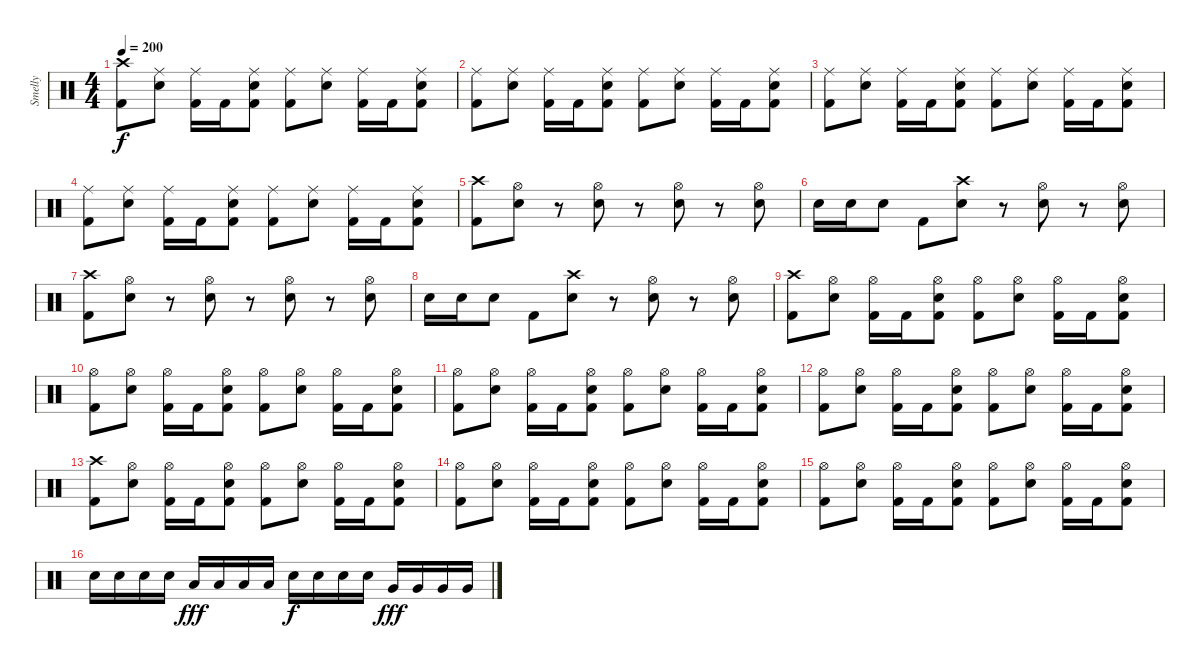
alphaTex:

\track ("Smelly" "Smelly") {instrument percussion}
\staff {score}
\articulation defaults
\ts (4 4)
\tempo 200
\clef neutral
\ks c
("Crash high (hit)" "Kick (hit) 2").8{dy f} ("Ride (middle)" "Electric Snare (hit)").8 ("Ride (middle)" "Kick (hit) 2").16 "Kick (hit) 2".16 ("Ride (middle)" "Electric Snare (hit)" "Kick (hit) 2").8 ("Ride (middle)" "Kick (hit) 2").8 ("Ride (middle)" "Electric Snare (hit)").8 ("Ride (middle)" "Kick (hit) 2").16 "Kick (hit) 2".16 ("Ride (middle)" "Electric Snare (hit)" "Kick (hit) 2").8 |
("Ride (middle)" "Kick (hit) 2").8 ("Ride (middle)" "Electric Snare (hit)").8 ("Ride (middle)" "Kick (hit) 2").16 "Kick (hit) 2".16 ("Ride (middle)" "Electric Snare (hit)" "Kick (hit) 2").8 ("Ride (middle)" "Kick (hit) 2").8 ("Ride (middle)" "Electric Snare (hit)").8 ("Ride (middle)" "Kick (hit) 2").16 "Kick (hit) 2".16 ("Ride (middle)" "Electric Snare (hit)" "Kick (hit) 2").8 |
("Ride (middle)" "Kick (hit) 2").8 ("Ride (middle)" "Electric Snare (hit)").8 ("Ride (middle)" "Kick (hit) 2").16 "Kick (hit) 2".16 ("Ride (middle)" "Electric Snare (hit)" "Kick (hit) 2").8 ("Ride (middle)" "Kick (hit) 2").8 ("Ride (middle)" "Electric Snare (hit)").8 ("Ride (middle)" "Kick (hit) 2").16 "Kick (hit) 2".16 ("Ride (middle)" "Electric Snare (hit)" "Kick (hit) 2").8 |
("Ride (middle)" "Kick (hit) 2").8 ("Ride (middle)" "Electric Snare (hit)").8 ("Ride (middle)" "Kick (hit) 2").16 "Kick (hit) 2".16 ("Ride (middle)" "Electric Snare (hit)" "Kick (hit) 2").8 ("Ride (middle)" "Kick (hit) 2").8 ("Ride (middle)" "Electric Snare (hit)").8 ("Ride (middle)" "Kick (hit) 2").16 "Kick (hit) 2".16 ("Ride (middle)" "Electric Snare (hit)" "Kick (hit) 2").8 |
("Crash high (hit)" "Kick (hit) 2").8 ("Hi-Hat (open)" "Electric Snare (hit)").8 r.8 ("Hi-Hat (open)" "Electric Snare (hit)").8 r.8 ("Hi-Hat (open)" "Electric Snare (hit)").8 r.8 ("Hi-Hat (open)" "Electric Snare (hit)").8 |
"Electric Snare (hit)".16 "Electric Snare (hit)".16 "Electric Snare (hit)".8 "Kick (hit) 2".8 ("Crash high (hit)" "Electric Snare (hit)").8 r.8 ("Hi-Hat (open)" "Electric Snare (hit)").8 r.8 ("Hi-Hat (open)" "Electric Snare (hit)").8 |
("Crash high (hit)" "Kick (hit) 2").8 ("Hi-Hat (open)" "Electric Snare (hit)").8 r.8 ("Hi-Hat (open)" "Electric Snare (hit)").8 r.8 ("Hi-Hat (open)" "Electric Snare (hit)").8 r.8 ("Hi-Hat (open)" "Electric Snare (hit)").8 |
"Electric Snare (hit)".16 "Electric Snare (hit)".16 "Electric Snare (hit)".8 "Kick (hit) 2".8 ("Crash high (hit)" "Electric Snare (hit)").8 r.8 ("Hi-Hat (open)" "Electric Snare (hit)").8 r.8 ("Hi-Hat (open)" "Electric Snare (hit)").8 |
("Crash high (hit)" "Kick (hit) 2").8 ("Hi-Hat (open)" "Electric Snare (hit)").8 ("Hi-Hat (open)" "Kick (hit) 2").16 "Kick (hit) 2".16 ("Hi-Hat (open)" "Electric Snare (hit)" "Kick (hit) 2").8 ("Hi-Hat (open)" "Kick (hit) 2").8 ("Hi-Hat (open)" "Electric Snare (hit)").8 ("Hi-Hat (open)" "Kick (hit) 2").16 "Kick (hit) 2".16 ("Hi-Hat (open)" "Electric Snare (hit)" "Kick (hit) 2").8 |
("Hi-Hat (open)" "Kick (hit) 2").8 ("Hi-Hat (open)" "Electric Snare (hit)").8 ("Hi-Hat (open)" "Kick (hit) 2").16 "Kick (hit) 2".16 ("Hi-Hat (open)" "Electric Snare (hit)" "Kick (hit) 2").8 ("Hi-Hat (open)" "Kick (hit) 2").8 ("Hi-Hat (open)" "Electric Snare (hit)").8 ("Hi-Hat (open)" "Kick (hit) 2").16 "Kick (hit) 2".16 ("Hi-Hat (open)" "Electric Snare (hit)" "Kick (hit) 2").8 |
("Hi-Hat (open)" "Kick (hit) 2").8 ("Hi-Hat (open)" "Electric Snare (hit)").8 ("Hi-Hat (open)" "Kick (hit) 2").16 "Kick (hit) 2".16 ("Hi-Hat (open)" "Electric Snare (hit)" "Kick (hit) 2").8 ("Hi-Hat (open)" "Kick (hit) 2").8 ("Hi-Hat (open)" "Electric Snare (hit)").8 ("Hi-Hat (open)" "Kick (hit) 2").16 "Kick (hit) 2".16 ("Hi-Hat (open)" "Electric Snare (hit)" "Kick (hit) 2").8 |
("Hi-Hat (open)" "Kick (hit) 2").8 ("Hi-Hat (open)" "Electric Snare (hit)").8 ("Hi-Hat (open)" "Kick (hit) 2").16 "Kick (hit) 2".16 ("Hi-Hat (open)" "Electric Snare (hit)" "Kick (hit) 2").8 ("Hi-Hat (open)" "Kick (hit) 2").8 ("Hi-Hat (open)" "Electric Snare (hit)").8 ("Hi-Hat (open)" "Kick (hit) 2").16 "Kick (hit) 2".16 ("Hi-Hat (open)" "Electric Snare (hit)" "Kick (hit) 2").8 |
("Crash high (hit)" "Kick (hit) 2").8 ("Hi-Hat (open)" "Electric Snare (hit)").8 ("Hi-Hat (open)" "Kick (hit) 2").16 "Kick (hit) 2".16 ("Hi-Hat (open)" "Electric Snare (hit)" "Kick (hit) 2").8 ("Hi-Hat (open)" "Kick (hit) 2").8 ("Hi-Hat (open)" "Electric Snare (hit)").8 ("Hi-Hat (open)" "Kick (hit) 2").16 "Kick (hit) 2".16 ("Hi-Hat (open)" "Electric Snare (hit)" "Kick (hit) 2").8 |
("Hi-Hat (open)" "Kick (hit) 2").8 ("Hi-Hat (open)" "Electric Snare (hit)").8 ("Hi-Hat (open)" "Kick (hit) 2").16 "Kick (hit) 2".16 ("Hi-Hat (open)" "Electric Snare (hit)" "Kick (hit) 2").8 ("Hi-Hat (open)" "Kick (hit) 2").8 ("Hi-Hat (open)" "Electric Snare (hit)").8 ("Hi-Hat (open)" "Kick (hit) 2").16 "Kick (hit) 2".16 ("Hi-Hat (open)" "Electric Snare (hit)" "Kick (hit) 2").8 |
("Hi-Hat (open)" "Kick (hit) 2").8 ("Hi-Hat (open)" "Electric Snare (hit)").8 ("Hi-Hat (open)" "Kick (hit) 2").16 "Kick (hit) 2".16 ("Hi-Hat (open)" "Electric Snare (hit)" "Kick (hit) 2").8 ("Hi-Hat (open)" "Kick (hit) 2").8 ("Hi-Hat (open)" "Electric Snare (hit)").8 ("Hi-Hat (open)" "Kick (hit) 2").16 "Kick (hit) 2".16 ("Hi-Hat (open)" "Electric Snare (hit)" "Kick (hit) 2").8 |
"Electric Snare (hit)".16 "Electric Snare (hit)".16 "Electric Snare (hit)".16 "Electric Snare (hit)".16 "Low Tom (hit)".16{dy fff} "Low Tom (hit)".16 "Low Tom (hit)".16 "Low Tom (hit)".16 "Electric Snare (hit)".16{dy f} "Electric Snare (hit)".16 "Electric Snare (hit)".16 "Electric Snare (hit)".16 "Very Low Tom (hit)".16{dy fff} "Very Low Tom (hit)".16 "Very Low Tom (hit)".16 "Very Low Tom (hit)".16
